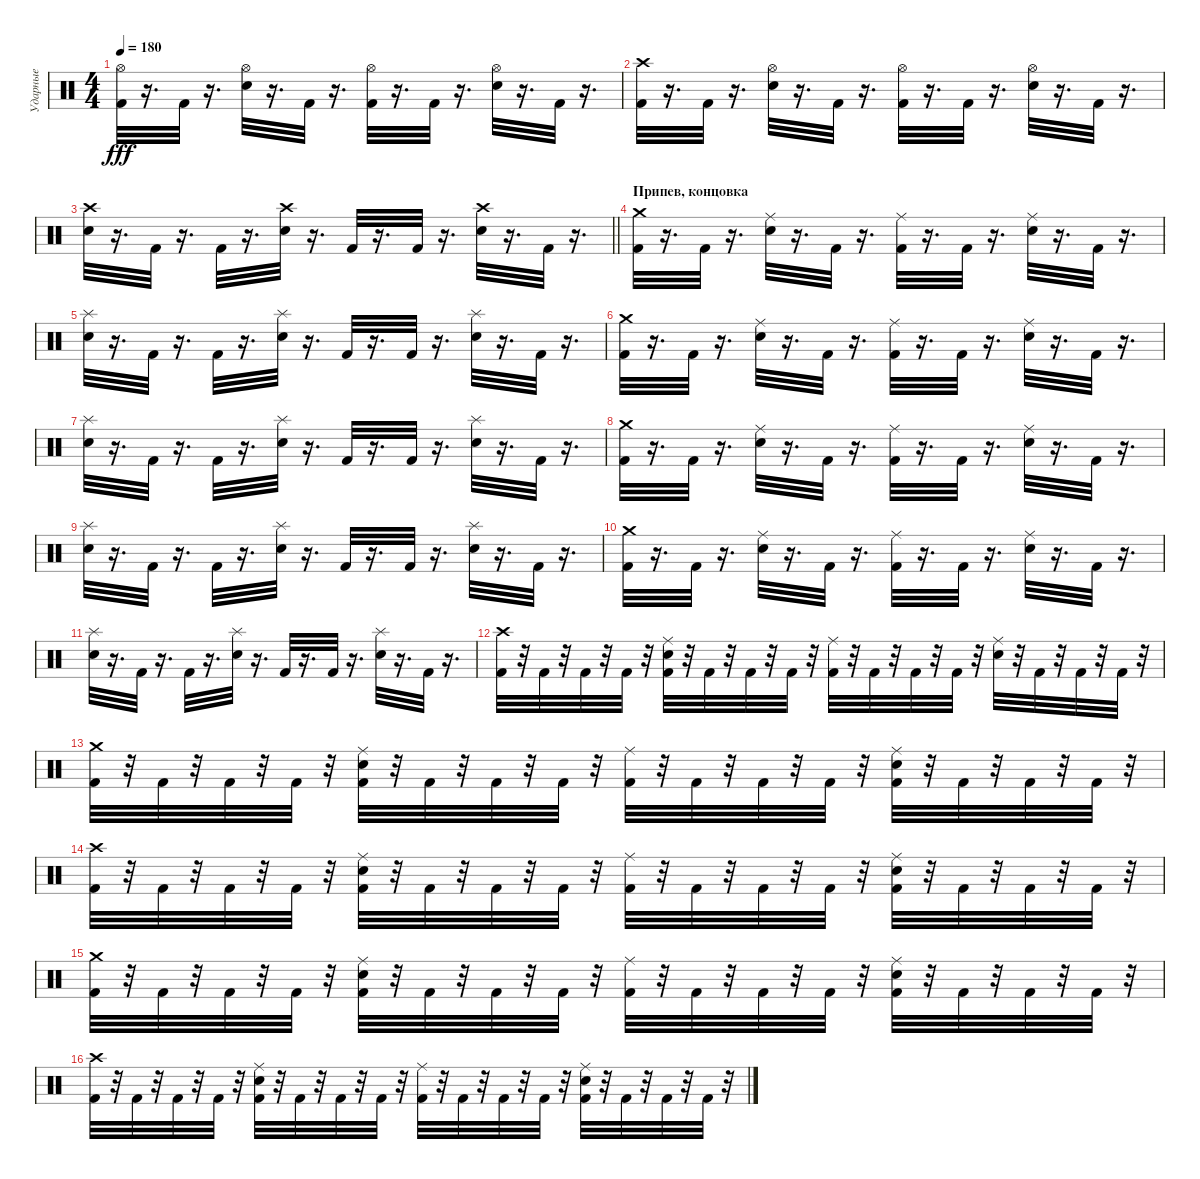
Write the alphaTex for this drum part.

\track ("Ударные" "Ударные") {instrument percussion}
\staff {score}
\articulation defaults
\ts (4 4)
\tempo 180
\clef neutral
\ks c
("Kick (hit) 2" "Hi-Hat (open)").32{dy fff} r.16{d} "Kick (hit) 2".32 r.16{d} ("Hi-Hat (open)" "Snare (hit) 2").32 r.16{d} "Kick (hit) 2".32 r.16{d} ("Kick (hit) 2" "Hi-Hat (open)").32 r.16{d} "Kick (hit) 2".32 r.16{d} ("Hi-Hat (open)" "Snare (hit) 2").32 r.16{d} "Kick (hit) 2".32 r.16{d} |
("Kick (hit) 2" "Crash high (hit)").32 r.16{d} "Kick (hit) 2".32 r.16{d} ("Hi-Hat (open)" "Snare (hit) 2").32 r.16{d} "Kick (hit) 2".32 r.16{d} ("Kick (hit) 2" "Hi-Hat (open)").32 r.16{d} "Kick (hit) 2".32 r.16{d} ("Snare (hit) 2" "Hi-Hat (open)").32 r.16{d} "Kick (hit) 2".32 r.16{d} |
\barLineRight lightlight
("Crash high (hit)" "Snare (hit) 2").32 r.16{d} "Kick (hit) 2".32 r.16{d} "Kick (hit) 2".32 r.16{d} ("Crash high (hit)" "Snare (hit) 2").32 r.16{d} "Kick (hit) 2".32 r.16{d} "Kick (hit) 2".32 r.16{d} ("Snare (hit) 2" "Crash high (hit)").32 r.16{d} "Kick (hit) 2".32 r.16{d} |
\section ("" "Припев, концовка")
("Crash medium (hit)" "Kick (hit) 2").32 r.16{d} "Kick (hit) 2".32 r.16{d} ("Snare (hit) 2" "Ride (middle)").32 r.16{d} "Kick (hit) 2".32 r.16{d} ("Kick (hit) 2" "Ride (middle)").32 r.16{d} "Kick (hit) 2".32 r.16{d} ("Snare (hit) 2" "Ride (middle)").32 r.16{d} "Kick (hit) 2".32 r.16{d} |
("Snare (hit) 2" "Splash (hit)").32 r.16{d} "Kick (hit) 2".32 r.16{d} "Kick (hit) 2".32 r.16{d} ("Snare (hit) 2" "Splash (hit)").32 r.16{d} "Kick (hit) 2".32 r.16{d} "Kick (hit) 2".32 r.16{d} ("Snare (hit) 2" "Splash (hit)").32 r.16{d} "Kick (hit) 2".32 r.16{d} |
("Kick (hit) 2" "Crash medium (hit)").32 r.16{d} "Kick (hit) 2".32 r.16{d} ("Ride (middle)" "Snare (hit) 2").32 r.16{d} "Kick (hit) 2".32 r.16{d} ("Ride (middle)" "Kick (hit) 2").32 r.16{d} "Kick (hit) 2".32 r.16{d} ("Ride (middle)" "Snare (hit) 2").32 r.16{d} "Kick (hit) 2".32 r.16{d} |
("Splash (hit)" "Snare (hit) 2").32 r.16{d} "Kick (hit) 2".32 r.16{d} "Kick (hit) 2".32 r.16{d} ("Splash (hit)" "Snare (hit) 2").32 r.16{d} "Kick (hit) 2".32 r.16{d} "Kick (hit) 2".32 r.16{d} ("Snare (hit) 2" "Splash (hit)").32 r.16{d} "Kick (hit) 2".32 r.16{d} |
("Kick (hit) 2" "Crash medium (hit)").32 r.16{d} "Kick (hit) 2".32 r.16{d} ("Ride (middle)" "Snare (hit) 2").32 r.16{d} "Kick (hit) 2".32 r.16{d} ("Kick (hit) 2" "Ride (middle)").32 r.16{d} "Kick (hit) 2".32 r.16{d} ("Snare (hit) 2" "Ride (middle)").32 r.16{d} "Kick (hit) 2".32 r.16{d} |
("Splash (hit)" "Snare (hit) 2").32 r.16{d} "Kick (hit) 2".32 r.16{d} "Kick (hit) 2".32 r.16{d} ("Splash (hit)" "Snare (hit) 2").32 r.16{d} "Kick (hit) 2".32 r.16{d} "Kick (hit) 2".32 r.16{d} ("Snare (hit) 2" "Splash (hit)").32 r.16{d} "Kick (hit) 2".32 r.16{d} |
("Crash medium (hit)" "Kick (hit) 2").32 r.16{d} "Kick (hit) 2".32 r.16{d} ("Ride (middle)" "Snare (hit) 2").32 r.16{d} "Kick (hit) 2".32 r.16{d} ("Ride (middle)" "Kick (hit) 2").32 r.16{d} "Kick (hit) 2".32 r.16{d} ("Snare (hit) 2" "Ride (middle)").32 r.16{d} "Kick (hit) 2".32 r.16{d} |
("Splash (hit)" "Snare (hit) 2").32 r.16{d} "Kick (hit) 2".32 r.16{d} "Kick (hit) 2".32 r.16{d} ("Splash (hit)" "Snare (hit) 2").32 r.16{d} "Kick (hit) 2".32 r.16{d} "Kick (hit) 2".32 r.16{d} ("Splash (hit)" "Snare (hit) 2").32 r.16{d} "Kick (hit) 2".32 r.16{d} |
("Crash high (hit)" "Kick (hit) 2").32 r.32 "Kick (hit) 2".32 r.32 "Kick (hit) 2".32 r.32 "Kick (hit) 2".32 r.32 ("Kick (hit) 2" "Ride (middle)" "Snare (hit) 2").32 r.32 "Kick (hit) 2".32 r.32 "Kick (hit) 2".32 r.32 "Kick (hit) 2".32 r.32 ("Kick (hit) 2" "Ride (middle)").32 r.32 "Kick (hit) 2".32 r.32 "Kick (hit) 2".32 r.32 "Kick (hit) 2".32 r.32 ("Snare (hit) 2" "Ride (middle)").32 r.32 "Kick (hit) 2".32 r.32 "Kick (hit) 2".32 r.32 "Kick (hit) 2".32 r.32 |
("Kick (hit) 2" "Crash medium (hit)").32 r.32 "Kick (hit) 2".32 r.32 "Kick (hit) 2".32 r.32 "Kick (hit) 2".32 r.32 ("Snare (hit) 2" "Kick (hit) 2" "Ride (middle)").32 r.32 "Kick (hit) 2".32 r.32 "Kick (hit) 2".32 r.32 "Kick (hit) 2".32 r.32 ("Ride (middle)" "Kick (hit) 2").32 r.32 "Kick (hit) 2".32 r.32 "Kick (hit) 2".32 r.32 "Kick (hit) 2".32 r.32 ("Snare (hit) 2" "Ride (middle)" "Kick (hit) 2").32 r.32 "Kick (hit) 2".32 r.32 "Kick (hit) 2".32 r.32 "Kick (hit) 2".32 r.32 |
("Kick (hit) 2" "Crash high (hit)").32 r.32 "Kick (hit) 2".32 r.32 "Kick (hit) 2".32 r.32 "Kick (hit) 2".32 r.32 ("Ride (middle)" "Kick (hit) 2" "Snare (hit) 2").32 r.32 "Kick (hit) 2".32 r.32 "Kick (hit) 2".32 r.32 "Kick (hit) 2".32 r.32 ("Kick (hit) 2" "Ride (middle)").32 r.32 "Kick (hit) 2".32 r.32 "Kick (hit) 2".32 r.32 "Kick (hit) 2".32 r.32 ("Snare (hit) 2" "Kick (hit) 2" "Ride (middle)").32 r.32 "Kick (hit) 2".32 r.32 "Kick (hit) 2".32 r.32 "Kick (hit) 2".32 r.32 |
("Kick (hit) 2" "Crash medium (hit)").32 r.32 "Kick (hit) 2".32 r.32 "Kick (hit) 2".32 r.32 "Kick (hit) 2".32 r.32 ("Ride (middle)" "Kick (hit) 2" "Snare (hit) 2").32 r.32 "Kick (hit) 2".32 r.32 "Kick (hit) 2".32 r.32 "Kick (hit) 2".32 r.32 ("Kick (hit) 2" "Ride (middle)").32 r.32 "Kick (hit) 2".32 r.32 "Kick (hit) 2".32 r.32 "Kick (hit) 2".32 r.32 ("Snare (hit) 2" "Ride (middle)" "Kick (hit) 2").32 r.32 "Kick (hit) 2".32 r.32 "Kick (hit) 2".32 r.32 "Kick (hit) 2".32 r.32 |
("Crash high (hit)" "Kick (hit) 2").32 r.32 "Kick (hit) 2".32 r.32 "Kick (hit) 2".32 r.32 "Kick (hit) 2".32 r.32 ("Snare (hit) 2" "Kick (hit) 2" "Ride (middle)").32 r.32 "Kick (hit) 2".32 r.32 "Kick (hit) 2".32 r.32 "Kick (hit) 2".32 r.32 ("Kick (hit) 2" "Ride (middle)").32 r.32 "Kick (hit) 2".32 r.32 "Kick (hit) 2".32 r.32 "Kick (hit) 2".32 r.32 ("Snare (hit) 2" "Ride (middle)" "Kick (hit) 2").32 r.32 "Kick (hit) 2".32 r.32 "Kick (hit) 2".32 r.32 "Kick (hit) 2".32 r.32
